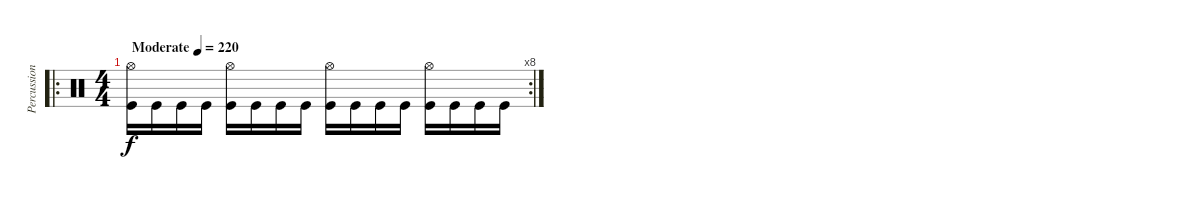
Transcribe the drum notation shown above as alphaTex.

\track ("Percussion" "Percussion") {instrument percussion}
\staff {score}
\articulation defaults
\ro
\rc 8
\ts (4 4)
\tempo (220 "Moderate")
\clef neutral
\ks c
("Hi-Hat (open)" "Kick (hit)").16{dy f} "Kick (hit)".16 "Kick (hit)".16 "Kick (hit)".16 ("Hi-Hat (open)" "Kick (hit)").16 "Kick (hit)".16 "Kick (hit)".16 "Kick (hit)".16 ("Hi-Hat (open)" "Kick (hit)").16 "Kick (hit)".16 "Kick (hit)".16 "Kick (hit)".16 ("Hi-Hat (open)" "Kick (hit)").16 "Kick (hit)".16 "Kick (hit)".16 "Kick (hit)".16
